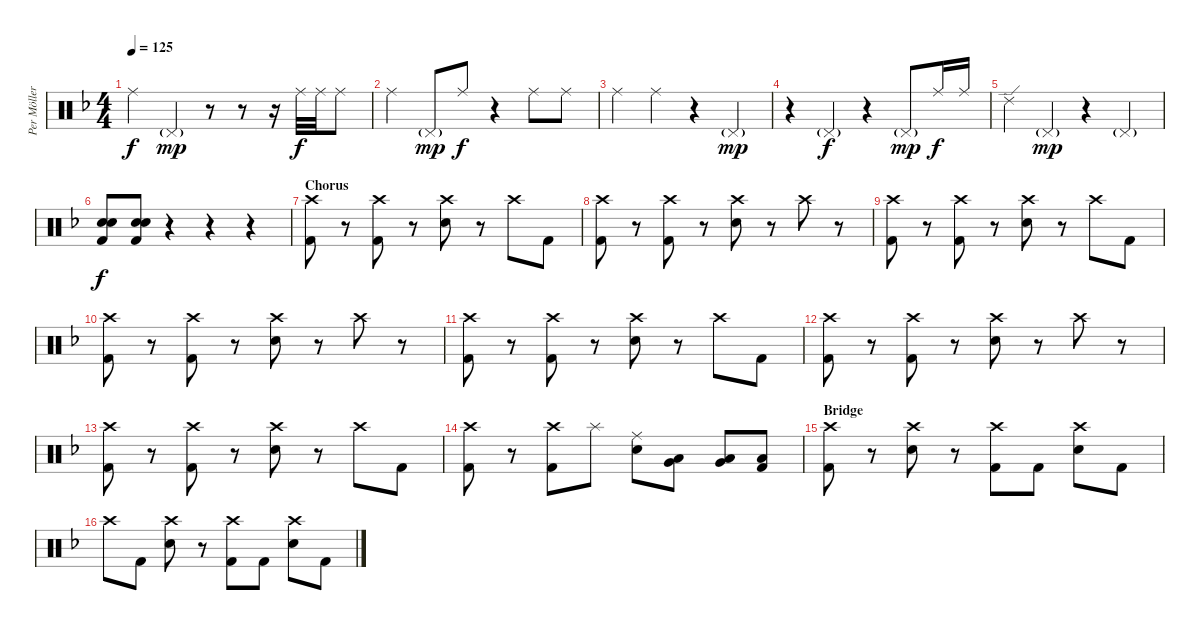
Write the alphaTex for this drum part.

\track ("Per Möller Jensen" "Per Möller") {instrument percussion}
\staff {score}
\articulation defaults
\ts (4 4)
\tempo 125
\clef neutral
\ks dminor "Ride (middle)".4{dy f} "Pedal Hi-Hat (hit)"{g}.4{dy mp}
r.8 r.8 r.16 "Ride (middle)".32{dy f} "Ride (middle)".32 "Ride (middle)".8 |
"Ride (middle)".4 "Pedal Hi-Hat (hit)"{g}.8{dy mp} "Ride (middle)".8{dy f} r.4 "Ride (middle)".8 "Ride (middle)".8 |
"Ride (middle)".4 "Ride (middle)".4 r.4 "Pedal Hi-Hat (hit)"{g}.4{dy mp} |
r.4 "Pedal Hi-Hat (hit)"{g}.4{dy f} r.4 "Pedal Hi-Hat (hit)"{g}.8{dy mp} "Ride (middle)".16{dy f} "Ride (middle)".16 |
"Ride (edge) 2".4 "Pedal Hi-Hat (hit)"{g}.4{dy mp} r.4 "Pedal Hi-Hat (hit)"{g}.4 |
("Electric Snare (hit)" "Electric Snare (hit)" "Kick (hit) 2").8{dy f} ("Electric Snare (hit)" "Electric Snare (hit)" "Kick (hit) 2").8 r.4 r.4 r.4 |
\section ("" "Chorus")
("Crash high (hit)" "Kick (hit) 2").8 r.8 ("Crash high (hit)" "Kick (hit) 2").8 r.8 ("Crash high (hit)" "Electric Snare (hit)").8 r.8 "Crash high (hit)".8 "Kick (hit) 2".8 |
("Crash high (hit)" "Kick (hit) 2").8 r.8 ("Crash high (hit)" "Kick (hit) 2").8 r.8 ("Crash high (hit)" "Electric Snare (hit)").8 r.8 "Crash high (hit)".8 r.8 |
("Crash high (hit)" "Kick (hit) 2").8 r.8 ("Crash high (hit)" "Kick (hit) 2").8 r.8 ("Crash high (hit)" "Electric Snare (hit)").8 r.8 "Crash high (hit)".8 "Kick (hit) 2".8 |
("Crash high (hit)" "Kick (hit) 2").8 r.8 ("Crash high (hit)" "Kick (hit) 2").8 r.8 ("Crash high (hit)" "Electric Snare (hit)").8 r.8 "Crash high (hit)".8 r.8 |
("Crash high (hit)" "Kick (hit) 2").8 r.8 ("Crash high (hit)" "Kick (hit) 2").8 r.8 ("Crash high (hit)" "Electric Snare (hit)").8 r.8 "Crash high (hit)".8 "Kick (hit) 2".8 |
("Crash high (hit)" "Kick (hit) 2").8 r.8 ("Crash high (hit)" "Kick (hit) 2").8 r.8 ("Crash high (hit)" "Electric Snare (hit)").8 r.8 "Crash high (hit)".8 r.8 |
("Crash high (hit)" "Kick (hit) 2").8 r.8 ("Crash high (hit)" "Kick (hit) 2").8 r.8 ("Crash high (hit)" "Electric Snare (hit)").8 r.8 "Crash high (hit)".8 "Kick (hit) 2".8 |
("Crash high (hit)" "Kick (hit) 2").8 r.8 ("Crash high (hit)" "Kick (hit) 2").8 "Splash (hit)".8 ("Ride (middle)" "Electric Snare (hit)").8 ("Low Tom (hit)" "Very Low Tom (hit)").8 ("Very Low Tom (hit)" "Low Floor Tom (hit)").8 ("Low Floor Tom (hit)" "Kick (hit) 2").8 |
\section ("" "Bridge")
("Crash high (hit)" "Kick (hit) 2").8 r.8 ("Crash high (hit)" "Electric Snare (hit)").8 r.8 ("Crash high (hit)" "Kick (hit) 2").8 "Kick (hit) 2".8 ("Crash high (hit)" "Electric Snare (hit)").8 "Kick (hit) 2".8 |
"Crash high (hit)".8 "Kick (hit) 2".8 ("Crash high (hit)" "Electric Snare (hit)").8 r.8 ("Crash high (hit)" "Kick (hit) 2").8 "Kick (hit) 2".8 ("Crash high (hit)" "Electric Snare (hit)").8 "Kick (hit) 2".8
